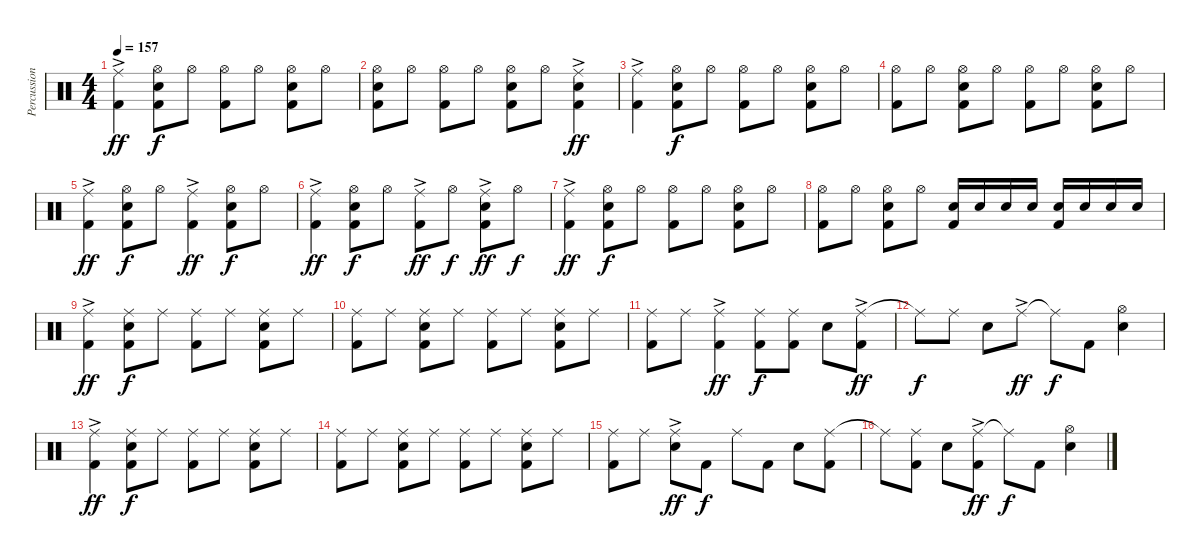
\track ("Percussion" "Percussion") {instrument percussion}
\staff {score}
\articulation defaults
\ts (4 4)
\tempo 157
\clef neutral
\ks c
("Ride (middle)"{ac} "Kick (hit) 2").4{dy ff} ("Hi-Hat (open)" "Snare (hit) 2" "Kick (hit) 2").8{dy f} "Hi-Hat (open)".8 ("Hi-Hat (open)" "Kick (hit) 2").8 "Hi-Hat (open)".8 ("Hi-Hat (open)" "Snare (hit) 2" "Kick (hit) 2").8 "Hi-Hat (open)".8 |
("Hi-Hat (open)" "Snare (hit) 2" "Kick (hit) 2").8 "Hi-Hat (open)".8 ("Hi-Hat (open)" "Kick (hit) 2").8 "Hi-Hat (open)".8 ("Hi-Hat (open)" "Snare (hit) 2" "Kick (hit) 2").8 "Hi-Hat (open)".8 ("Ride (middle)"{ac} "Snare (hit) 2" "Kick (hit) 2").4{dy ff} |
("Ride (middle)"{ac} "Kick (hit) 2").4 ("Hi-Hat (open)" "Snare (hit) 2" "Kick (hit) 2").8{dy f} "Hi-Hat (open)".8 ("Hi-Hat (open)" "Kick (hit) 2").8 "Hi-Hat (open)".8 ("Hi-Hat (open)" "Snare (hit) 2" "Kick (hit) 2").8 "Hi-Hat (open)".8 |
("Hi-Hat (open)" "Kick (hit) 2").8 "Hi-Hat (open)".8 ("Hi-Hat (open)" "Snare (hit) 2" "Kick (hit) 2").8 "Hi-Hat (open)".8 ("Hi-Hat (open)" "Kick (hit) 2").8 "Hi-Hat (open)".8 ("Hi-Hat (open)" "Snare (hit) 2" "Kick (hit) 2").8 "Hi-Hat (open)".8 |
("Ride (middle)"{ac} "Kick (hit) 2").4{dy ff} ("Hi-Hat (open)" "Snare (hit) 2" "Kick (hit) 2").8{dy f} "Hi-Hat (open)".8 ("Ride (middle)"{ac} "Kick (hit) 2").4{dy ff} ("Hi-Hat (open)" "Snare (hit) 2" "Kick (hit) 2").8{dy f} "Hi-Hat (open)".8 |
("Ride (middle)"{ac} "Kick (hit) 2").4{dy ff} ("Hi-Hat (open)" "Snare (hit) 2" "Kick (hit) 2").8{dy f} "Hi-Hat (open)".8 ("Ride (middle)"{ac} "Kick (hit) 2").8{dy ff} "Hi-Hat (open)".8{dy f} ("Ride (middle)"{ac} "Snare (hit) 2" "Kick (hit) 2").8{dy ff} "Hi-Hat (open)".8{dy f} |
("Ride (middle)"{ac} "Kick (hit) 2").4{dy ff} ("Hi-Hat (open)" "Snare (hit) 2" "Kick (hit) 2").8{dy f} "Hi-Hat (open)".8 ("Hi-Hat (open)" "Kick (hit) 2").8 "Hi-Hat (open)".8 ("Hi-Hat (open)" "Snare (hit) 2" "Kick (hit) 2").8 "Hi-Hat (open)".8 |
("Hi-Hat (open)" "Kick (hit) 2").8 "Hi-Hat (open)".8 ("Hi-Hat (open)" "Snare (hit) 2" "Kick (hit) 2").8 "Hi-Hat (open)".8 ("Snare (hit) 2" "Kick (hit) 2").16 "Snare (hit) 2".16 "Snare (hit) 2".16 "Snare (hit) 2".16 ("Snare (hit) 2" "Kick (hit) 2").16 "Snare (hit) 2".16 "Snare (hit) 2".16 "Snare (hit) 2".16 |
("Ride (middle)"{ac} "Kick (hit) 2").4{dy ff} ("Ride (middle)" "Snare (hit) 2" "Kick (hit) 2").8{dy f} "Ride (middle)".8 ("Ride (middle)" "Kick (hit) 2").8 "Ride (middle)".8 ("Ride (middle)" "Snare (hit) 2" "Kick (hit) 2").8 "Ride (middle)".8 |
("Ride (middle)" "Kick (hit) 2").8 "Ride (middle)".8 ("Ride (middle)" "Snare (hit) 2" "Kick (hit) 2").8 "Ride (middle)".8 ("Ride (middle)" "Kick (hit) 2").8 "Ride (middle)".8 ("Ride (middle)" "Snare (hit) 2" "Kick (hit) 2").8 "Ride (middle)".8 |
("Ride (middle)" "Kick (hit) 2").8 "Ride (middle)".8 ("Ride (middle)"{ac} "Kick (hit) 2").4{dy ff} ("Ride (middle)" "Kick (hit) 2").8{dy f} ("Ride (middle)" "Kick (hit) 2").8 "Snare (hit) 2".8 ("Ride (middle)"{ac} "Kick (hit) 2").8{dy ff} |
"Ride (middle)"{t}.8{dy f} "Ride (middle)".8 "Snare (hit) 2".8 "Ride (middle)"{ac}.8{dy ff} "Ride (middle)"{t}.8{dy f} "Kick (hit) 2".8 ("Hi-Hat (open)" "Snare (hit) 2").4 |
("Ride (middle)"{ac} "Kick (hit) 2").4{dy ff} ("Ride (middle)" "Snare (hit) 2" "Kick (hit) 2").8{dy f} "Ride (middle)".8 ("Ride (middle)" "Kick (hit) 2").8 "Ride (middle)".8 ("Ride (middle)" "Snare (hit) 2" "Kick (hit) 2").8 "Ride (middle)".8 |
("Ride (middle)" "Kick (hit) 2").8 "Ride (middle)".8 ("Ride (middle)" "Snare (hit) 2" "Kick (hit) 2").8 "Ride (middle)".8 ("Ride (middle)" "Kick (hit) 2").8 "Ride (middle)".8 ("Ride (middle)" "Snare (hit) 2" "Kick (hit) 2").8 "Ride (middle)".8 |
("Ride (middle)" "Kick (hit) 2").8 "Ride (middle)".8 ("Ride (middle)"{ac} "Snare (hit) 2").8{dy ff} "Kick (hit) 2".8{dy f} "Ride (middle)".8 "Kick (hit) 2".8 "Snare (hit) 2".8 ("Ride (middle)" "Kick (hit) 2").8 |
"Ride (middle)"{t}.8 ("Ride (middle)" "Kick (hit) 2").8 "Snare (hit) 2".8 ("Ride (middle)"{ac} "Kick (hit) 2").8{dy ff} "Ride (middle)"{t}.8{dy f} "Kick (hit) 2".8 ("Hi-Hat (open)" "Snare (hit) 2").4
